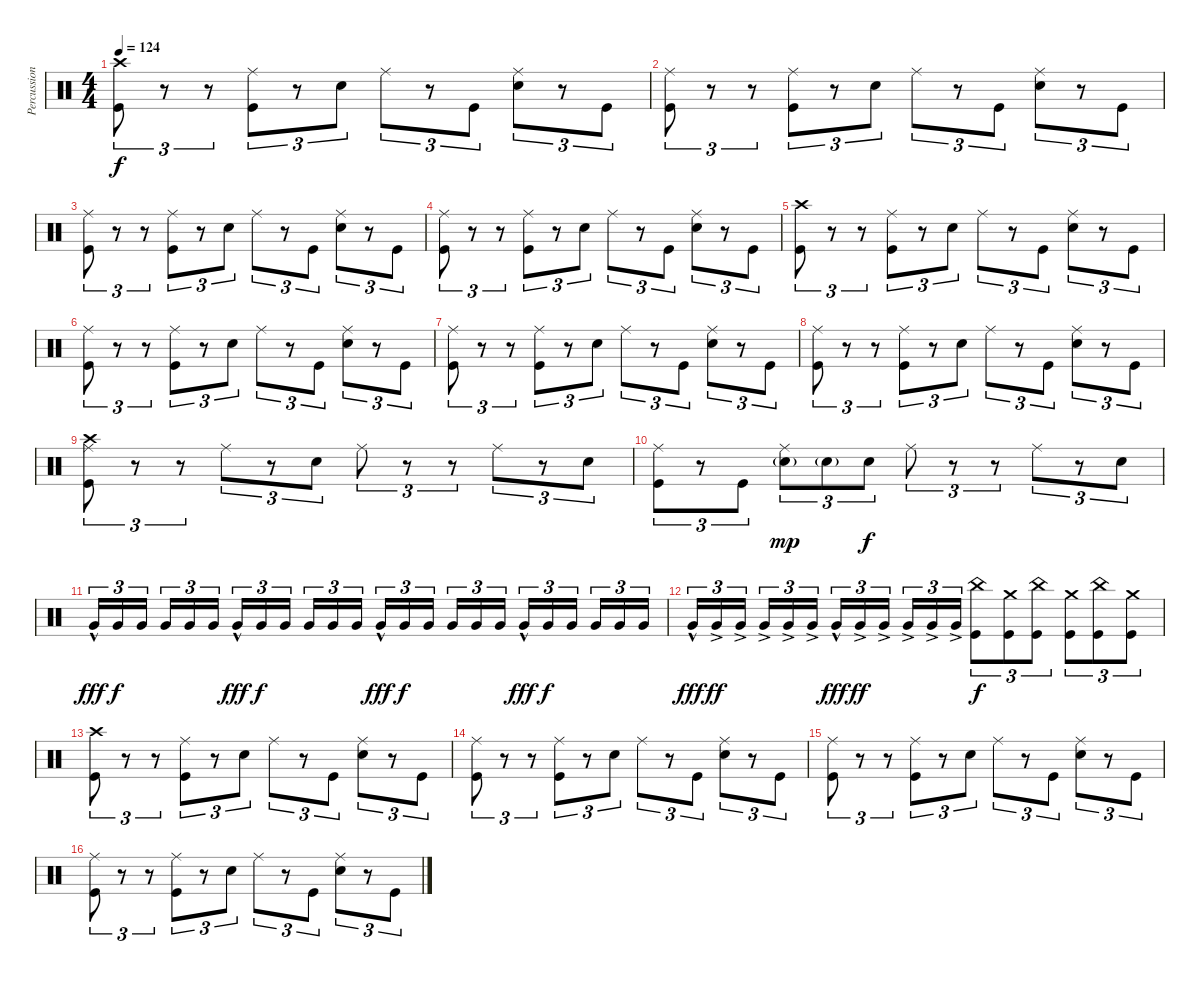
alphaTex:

\track ("Percussion" "Percussion") {instrument percussion}
\staff {score}
\articulation defaults
\ts (4 4)
\tempo 124
\clef neutral
\ks c
("Crash high (hit)" "Kick (hit)").8{tu (3 2) dy f} r.8{tu (3 2)} r.8{tu (3 2)} ("Ride (middle)" "Kick (hit)").8{tu (3 2)} r.8{tu (3 2)} "Snare (hit) 2".8{tu (3 2)} "Ride (middle)".8{tu (3 2)} r.8{tu (3 2)} "Kick (hit)".8{tu (3 2)} ("Ride (middle)" "Snare (hit) 2").8{tu (3 2)} r.8{tu (3 2)} "Kick (hit)".8{tu (3 2)} |
("Ride (middle)" "Kick (hit)").8{tu (3 2)} r.8{tu (3 2)} r.8{tu (3 2)} ("Ride (middle)" "Kick (hit)").8{tu (3 2)} r.8{tu (3 2)} "Snare (hit) 2".8{tu (3 2)} "Ride (middle)".8{tu (3 2)} r.8{tu (3 2)} "Kick (hit)".8{tu (3 2)} ("Ride (middle)" "Snare (hit) 2").8{tu (3 2)} r.8{tu (3 2)} "Kick (hit)".8{tu (3 2)} |
("Ride (middle)" "Kick (hit)").8{tu (3 2)} r.8{tu (3 2)} r.8{tu (3 2)} ("Ride (middle)" "Kick (hit)").8{tu (3 2)} r.8{tu (3 2)} "Snare (hit) 2".8{tu (3 2)} "Ride (middle)".8{tu (3 2)} r.8{tu (3 2)} "Kick (hit)".8{tu (3 2)} ("Ride (middle)" "Snare (hit) 2").8{tu (3 2)} r.8{tu (3 2)} "Kick (hit)".8{tu (3 2)} |
("Ride (middle)" "Kick (hit)").8{tu (3 2)} r.8{tu (3 2)} r.8{tu (3 2)} ("Ride (middle)" "Kick (hit)").8{tu (3 2)} r.8{tu (3 2)} "Snare (hit) 2".8{tu (3 2)} "Ride (middle)".8{tu (3 2)} r.8{tu (3 2)} "Kick (hit)".8{tu (3 2)} ("Ride (middle)" "Snare (hit) 2").8{tu (3 2)} r.8{tu (3 2)} "Kick (hit)".8{tu (3 2)} |
("Crash high (hit)" "Kick (hit)").8{tu (3 2)} r.8{tu (3 2)} r.8{tu (3 2)} ("Ride (middle)" "Kick (hit)").8{tu (3 2)} r.8{tu (3 2)} "Snare (hit) 2".8{tu (3 2)} "Ride (middle)".8{tu (3 2)} r.8{tu (3 2)} "Kick (hit)".8{tu (3 2)} ("Ride (middle)" "Snare (hit) 2").8{tu (3 2)} r.8{tu (3 2)} "Kick (hit)".8{tu (3 2)} |
("Ride (middle)" "Kick (hit)").8{tu (3 2)} r.8{tu (3 2)} r.8{tu (3 2)} ("Ride (middle)" "Kick (hit)").8{tu (3 2)} r.8{tu (3 2)} "Snare (hit) 2".8{tu (3 2)} "Ride (middle)".8{tu (3 2)} r.8{tu (3 2)} "Kick (hit)".8{tu (3 2)} ("Ride (middle)" "Snare (hit) 2").8{tu (3 2)} r.8{tu (3 2)} "Kick (hit)".8{tu (3 2)} |
("Ride (middle)" "Kick (hit)").8{tu (3 2)} r.8{tu (3 2)} r.8{tu (3 2)} ("Ride (middle)" "Kick (hit)").8{tu (3 2)} r.8{tu (3 2)} "Snare (hit) 2".8{tu (3 2)} "Ride (middle)".8{tu (3 2)} r.8{tu (3 2)} "Kick (hit)".8{tu (3 2)} ("Ride (middle)" "Snare (hit) 2").8{tu (3 2)} r.8{tu (3 2)} "Kick (hit)".8{tu (3 2)} |
("Ride (middle)" "Kick (hit)").8{tu (3 2)} r.8{tu (3 2)} r.8{tu (3 2)} ("Ride (middle)" "Kick (hit)").8{tu (3 2)} r.8{tu (3 2)} "Snare (hit) 2".8{tu (3 2)} "Ride (middle)".8{tu (3 2)} r.8{tu (3 2)} "Kick (hit)".8{tu (3 2)} ("Ride (middle)" "Snare (hit) 2").8{tu (3 2)} r.8{tu (3 2)} "Kick (hit)".8{tu (3 2)} |
("Crash high (hit)" "Ride (middle)" "Kick (hit)").8{tu (3 2)} r.8{tu (3 2)} r.8{tu (3 2)} "Ride (middle)".8{tu (3 2)} r.8{tu (3 2)} "Snare (hit) 2".8{tu (3 2)} "Ride (middle)".8{tu (3 2)} r.8{tu (3 2)} r.8{tu (3 2)} "Ride (middle)".8{tu (3 2)} r.8{tu (3 2)} "Snare (hit) 2".8{tu (3 2)} |
("Ride (middle)" "Kick (hit)").8{tu (3 2)} r.8{tu (3 2)} "Kick (hit)".8{tu (3 2)} ("Ride (middle)" "Snare (hit) 2"{g}).8{tu (3 2) dy mp} "Snare (hit) 2"{g}.8{tu (3 2)} "Snare (hit) 2".8{tu (3 2) dy f} "Ride (middle)".8{tu (3 2)} r.8{tu (3 2)} r.8{tu (3 2)} "Ride (middle)".8{tu (3 2)} r.8{tu (3 2)} "Snare (hit) 2".8{tu (3 2)} |
"Very Low Tom (hit)"{hac}.16{tu (3 2) dy fff} "Very Low Tom (hit)".16{tu (3 2) dy f} "Very Low Tom (hit)".16{tu (3 2) beam splitsecondary} "Very Low Tom (hit)".16{tu (3 2)} "Very Low Tom (hit)".16{tu (3 2)} "Very Low Tom (hit)".16{tu (3 2)} "Very Low Tom (hit)"{hac}.16{tu (3 2) dy fff} "Very Low Tom (hit)".16{tu (3 2) dy f} "Very Low Tom (hit)".16{tu (3 2) beam splitsecondary} "Very Low Tom (hit)".16{tu (3 2)} "Very Low Tom (hit)".16{tu (3 2)} "Very Low Tom (hit)".16{tu (3 2)} "Very Low Tom (hit)"{hac}.16{tu (3 2) dy fff} "Very Low Tom (hit)".16{tu (3 2) dy f} "Very Low Tom (hit)".16{tu (3 2) beam splitsecondary} "Very Low Tom (hit)".16{tu (3 2)} "Very Low Tom (hit)".16{tu (3 2)} "Very Low Tom (hit)".16{tu (3 2)} "Very Low Tom (hit)"{hac}.16{tu (3 2) dy fff} "Very Low Tom (hit)".16{tu (3 2) dy f} "Very Low Tom (hit)".16{tu (3 2) beam splitsecondary} "Very Low Tom (hit)".16{tu (3 2)} "Very Low Tom (hit)".16{tu (3 2)} "Very Low Tom (hit)".16{tu (3 2)} |
"Very Low Tom (hit)"{hac}.16{tu (3 2) dy fff} "Very Low Tom (hit)"{ac}.16{tu (3 2) dy ff} "Very Low Tom (hit)"{ac}.16{tu (3 2) beam splitsecondary} "Very Low Tom (hit)"{ac}.16{tu (3 2)} "Very Low Tom (hit)"{ac}.16{tu (3 2)} "Very Low Tom (hit)"{ac}.16{tu (3 2)} "Very Low Tom (hit)"{hac}.16{tu (3 2) dy fff} "Very Low Tom (hit)"{ac}.16{tu (3 2) dy ff} "Very Low Tom (hit)"{ac}.16{tu (3 2) beam splitsecondary} "Very Low Tom (hit)"{ac}.16{tu (3 2)} "Very Low Tom (hit)"{ac}.16{tu (3 2)} "Very Low Tom (hit)"{ac}.16{tu (3 2)} ("China (hit)" "Kick (hit)").8{tu (3 2) dy f} ("Crash medium (hit)" "Kick (hit)").8{tu (3 2)} ("China (hit)" "Kick (hit)").8{tu (3 2)} ("Crash medium (hit)" "Kick (hit)").8{tu (3 2)} ("China (hit)" "Kick (hit)").8{tu (3 2)} ("Crash medium (hit)" "Kick (hit)").8{tu (3 2)} |
("Crash high (hit)" "Kick (hit)").8{tu (3 2)} r.8{tu (3 2)} r.8{tu (3 2)} ("Ride (middle)" "Kick (hit)").8{tu (3 2)} r.8{tu (3 2)} "Snare (hit) 2".8{tu (3 2)} "Ride (middle)".8{tu (3 2)} r.8{tu (3 2)} "Kick (hit)".8{tu (3 2)} ("Ride (middle)" "Snare (hit) 2").8{tu (3 2)} r.8{tu (3 2)} "Kick (hit)".8{tu (3 2)} |
("Ride (middle)" "Kick (hit)").8{tu (3 2)} r.8{tu (3 2)} r.8{tu (3 2)} ("Ride (middle)" "Kick (hit)").8{tu (3 2)} r.8{tu (3 2)} "Snare (hit) 2".8{tu (3 2)} "Ride (middle)".8{tu (3 2)} r.8{tu (3 2)} "Kick (hit)".8{tu (3 2)} ("Ride (middle)" "Snare (hit) 2").8{tu (3 2)} r.8{tu (3 2)} "Kick (hit)".8{tu (3 2)} |
("Ride (middle)" "Kick (hit)").8{tu (3 2)} r.8{tu (3 2)} r.8{tu (3 2)} ("Ride (middle)" "Kick (hit)").8{tu (3 2)} r.8{tu (3 2)} "Snare (hit) 2".8{tu (3 2)} "Ride (middle)".8{tu (3 2)} r.8{tu (3 2)} "Kick (hit)".8{tu (3 2)} ("Ride (middle)" "Snare (hit) 2").8{tu (3 2)} r.8{tu (3 2)} "Kick (hit)".8{tu (3 2)} |
("Ride (middle)" "Kick (hit)").8{tu (3 2)} r.8{tu (3 2)} r.8{tu (3 2)} ("Ride (middle)" "Kick (hit)").8{tu (3 2)} r.8{tu (3 2)} "Snare (hit) 2".8{tu (3 2)} "Ride (middle)".8{tu (3 2)} r.8{tu (3 2)} "Kick (hit)".8{tu (3 2)} ("Ride (middle)" "Snare (hit) 2").8{tu (3 2)} r.8{tu (3 2)} "Kick (hit)".8{tu (3 2)}
